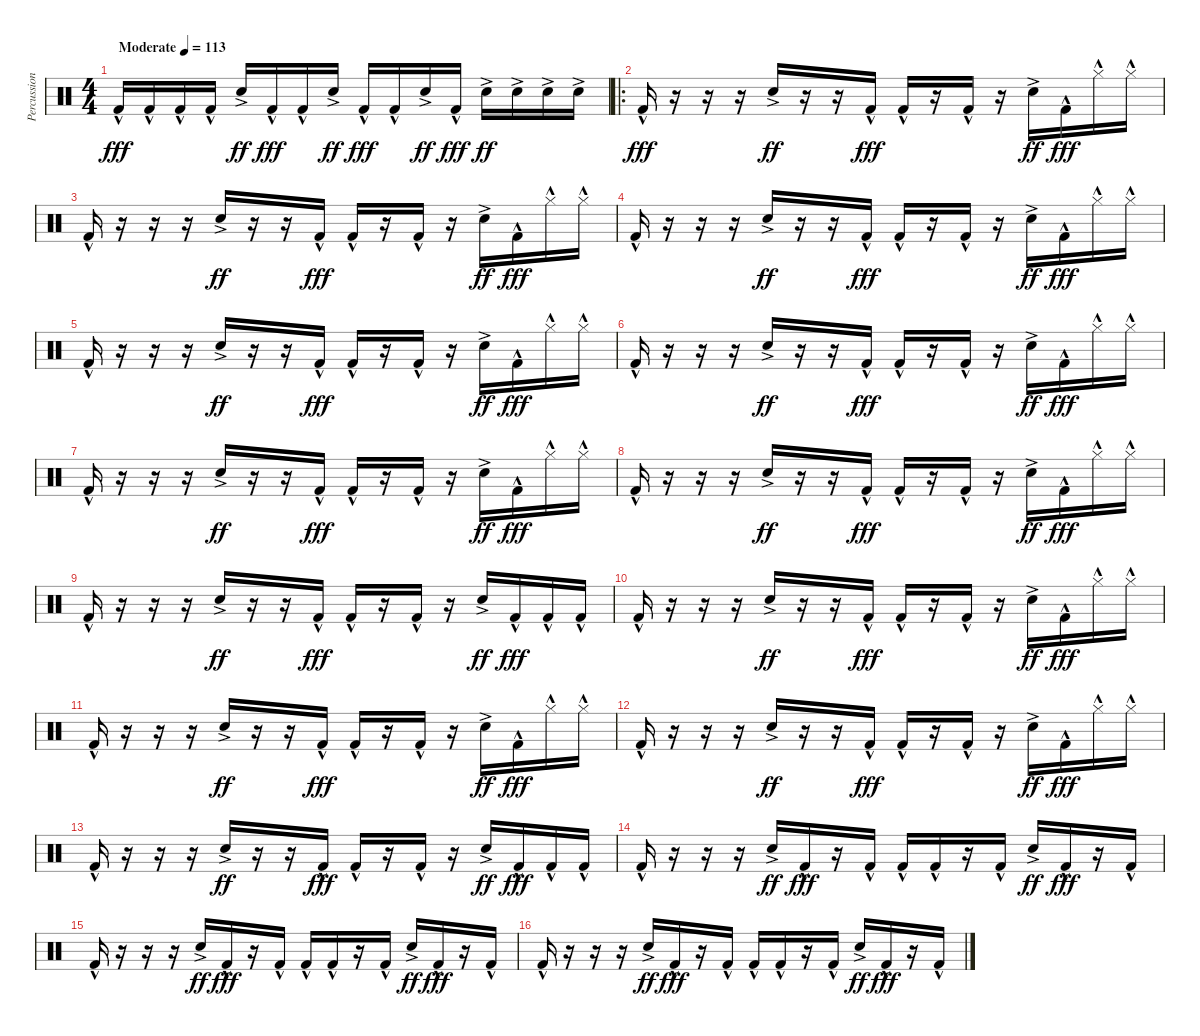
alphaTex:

\track ("Percussion" "Percussion") {instrument percussion}
\staff {score}
\articulation defaults
\ts (4 4)
\tempo (113 "Moderate")
\clef neutral
\ks c "Kick (hit) 2"{hac}.16{dy fff} "Kick (hit) 2"{hac}.16 "Kick (hit) 2"{hac}.16 "Kick (hit) 2"{hac}.16 "Snare (hit) 2"{ac}.16{dy ff} "Kick (hit) 2"{hac}.16{dy fff} "Kick (hit) 2"{hac}.16 "Snare (hit) 2"{ac}.16{dy ff} "Kick (hit) 2"{hac}.16{dy fff} "Kick (hit) 2"{hac}.16 "Snare (hit) 2"{ac}.16{dy ff} "Kick (hit) 2"{hac}.16{dy fff} "Snare (hit) 2"{ac}.16{dy ff} "Snare (hit) 2"{ac}.16 "Snare (hit) 2"{ac}.16 "Snare (hit) 2"{ac}.16
|
\ro "Kick (hit) 2"{hac}.16{dy fff}
r.16 r.16 r.16 "Snare (hit) 2"{ac}.16{dy ff} r.16 r.16 "Kick (hit) 2"{hac}.16{dy fff} "Kick (hit) 2"{hac}.16 r.16 "Kick (hit) 2"{hac}.16 r.16 "Snare (hit) 2"{ac}.16{dy ff} "Kick (hit) 2"{hac}.16{dy fff} "Hi-Hat (closed)"{hac}.16 "Hi-Hat (closed)"{hac}.16 |
"Kick (hit) 2"{hac}.16 r.16 r.16 r.16 "Snare (hit) 2"{ac}.16{dy ff} r.16 r.16 "Kick (hit) 2"{hac}.16{dy fff} "Kick (hit) 2"{hac}.16 r.16 "Kick (hit) 2"{hac}.16 r.16 "Snare (hit) 2"{ac}.16{dy ff} "Kick (hit) 2"{hac}.16{dy fff} "Hi-Hat (closed)"{hac}.16 "Hi-Hat (closed)"{hac}.16 |
"Kick (hit) 2"{hac}.16 r.16 r.16 r.16 "Snare (hit) 2"{ac}.16{dy ff} r.16 r.16 "Kick (hit) 2"{hac}.16{dy fff} "Kick (hit) 2"{hac}.16 r.16 "Kick (hit) 2"{hac}.16 r.16 "Snare (hit) 2"{ac}.16{dy ff} "Kick (hit) 2"{hac}.16{dy fff} "Hi-Hat (closed)"{hac}.16 "Hi-Hat (closed)"{hac}.16 |
"Kick (hit) 2"{hac}.16 r.16 r.16 r.16 "Snare (hit) 2"{ac}.16{dy ff} r.16 r.16 "Kick (hit) 2"{hac}.16{dy fff} "Kick (hit) 2"{hac}.16 r.16 "Kick (hit) 2"{hac}.16 r.16 "Snare (hit) 2"{ac}.16{dy ff} "Kick (hit) 2"{hac}.16{dy fff} "Hi-Hat (closed)"{hac}.16 "Hi-Hat (closed)"{hac}.16 |
"Kick (hit) 2"{hac}.16 r.16 r.16 r.16 "Snare (hit) 2"{ac}.16{dy ff} r.16 r.16 "Kick (hit) 2"{hac}.16{dy fff} "Kick (hit) 2"{hac}.16 r.16 "Kick (hit) 2"{hac}.16 r.16 "Snare (hit) 2"{ac}.16{dy ff} "Kick (hit) 2"{hac}.16{dy fff} "Hi-Hat (closed)"{hac}.16 "Hi-Hat (closed)"{hac}.16 |
"Kick (hit) 2"{hac}.16 r.16 r.16 r.16 "Snare (hit) 2"{ac}.16{dy ff} r.16 r.16 "Kick (hit) 2"{hac}.16{dy fff} "Kick (hit) 2"{hac}.16 r.16 "Kick (hit) 2"{hac}.16 r.16 "Snare (hit) 2"{ac}.16{dy ff} "Kick (hit) 2"{hac}.16{dy fff} "Hi-Hat (closed)"{hac}.16 "Hi-Hat (closed)"{hac}.16 |
"Kick (hit) 2"{hac}.16 r.16 r.16 r.16 "Snare (hit) 2"{ac}.16{dy ff} r.16 r.16 "Kick (hit) 2"{hac}.16{dy fff} "Kick (hit) 2"{hac}.16 r.16 "Kick (hit) 2"{hac}.16 r.16 "Snare (hit) 2"{ac}.16{dy ff} "Kick (hit) 2"{hac}.16{dy fff} "Hi-Hat (closed)"{hac}.16 "Hi-Hat (closed)"{hac}.16 |
"Kick (hit) 2"{hac}.16 r.16 r.16 r.16 "Snare (hit) 2"{ac}.16{dy ff} r.16 r.16 "Kick (hit) 2"{hac}.16{dy fff} "Kick (hit) 2"{hac}.16 r.16 "Kick (hit) 2"{hac}.16 r.16 "Snare (hit) 2"{ac}.16{dy ff} "Kick (hit) 2"{hac}.16{dy fff} "Kick (hit) 2"{hac}.16 "Kick (hit) 2"{hac}.16 |
"Kick (hit) 2"{hac}.16 r.16 r.16 r.16 "Snare (hit) 2"{ac}.16{dy ff} r.16 r.16 "Kick (hit) 2"{hac}.16{dy fff} "Kick (hit) 2"{hac}.16 r.16 "Kick (hit) 2"{hac}.16 r.16 "Snare (hit) 2"{ac}.16{dy ff} "Kick (hit) 2"{hac}.16{dy fff} "Hi-Hat (closed)"{hac}.16 "Hi-Hat (closed)"{hac}.16 |
"Kick (hit) 2"{hac}.16 r.16 r.16 r.16 "Snare (hit) 2"{ac}.16{dy ff} r.16 r.16 "Kick (hit) 2"{hac}.16{dy fff} "Kick (hit) 2"{hac}.16 r.16 "Kick (hit) 2"{hac}.16 r.16 "Snare (hit) 2"{ac}.16{dy ff} "Kick (hit) 2"{hac}.16{dy fff} "Hi-Hat (closed)"{hac}.16 "Hi-Hat (closed)"{hac}.16 |
"Kick (hit) 2"{hac}.16 r.16 r.16 r.16 "Snare (hit) 2"{ac}.16{dy ff} r.16 r.16 "Kick (hit) 2"{hac}.16{dy fff} "Kick (hit) 2"{hac}.16 r.16 "Kick (hit) 2"{hac}.16 r.16 "Snare (hit) 2"{ac}.16{dy ff} "Kick (hit) 2"{hac}.16{dy fff} "Hi-Hat (closed)"{hac}.16 "Hi-Hat (closed)"{hac}.16 |
"Kick (hit) 2"{hac}.16 r.16 r.16 r.16 "Snare (hit) 2"{ac}.16{dy ff} r.16 r.16 "Kick (hit) 2"{hac}.16{dy fff} "Kick (hit) 2"{hac}.16 r.16 "Kick (hit) 2"{hac}.16 r.16 "Snare (hit) 2"{ac}.16{dy ff} "Kick (hit) 2"{hac}.16{dy fff} "Kick (hit) 2"{hac}.16 "Kick (hit) 2"{hac}.16 |
"Kick (hit) 2"{hac}.16 r.16 r.16 r.16 "Snare (hit) 2"{ac}.16{dy ff} "Kick (hit) 2"{hac}.16{dy fff} r.16 "Kick (hit) 2"{hac}.16 "Kick (hit) 2"{hac}.16 "Kick (hit) 2"{hac}.16 r.16 "Kick (hit) 2"{hac}.16 "Snare (hit) 2"{ac}.16{dy ff} "Kick (hit) 2"{hac}.16{dy fff} r.16 "Kick (hit) 2"{hac}.16 |
"Kick (hit) 2"{hac}.16 r.16 r.16 r.16 "Snare (hit) 2"{ac}.16{dy ff} "Kick (hit) 2"{hac}.16{dy fff} r.16 "Kick (hit) 2"{hac}.16 "Kick (hit) 2"{hac}.16 "Kick (hit) 2"{hac}.16 r.16 "Kick (hit) 2"{hac}.16 "Snare (hit) 2"{ac}.16{dy ff} "Kick (hit) 2"{hac}.16{dy fff} r.16 "Kick (hit) 2"{hac}.16 |
"Kick (hit) 2"{hac}.16 r.16 r.16 r.16 "Snare (hit) 2"{ac}.16{dy ff} "Kick (hit) 2"{hac}.16{dy fff} r.16 "Kick (hit) 2"{hac}.16 "Kick (hit) 2"{hac}.16 "Kick (hit) 2"{hac}.16 r.16 "Kick (hit) 2"{hac}.16 "Snare (hit) 2"{ac}.16{dy ff} "Kick (hit) 2"{hac}.16{dy fff} r.16 "Kick (hit) 2"{hac}.16
